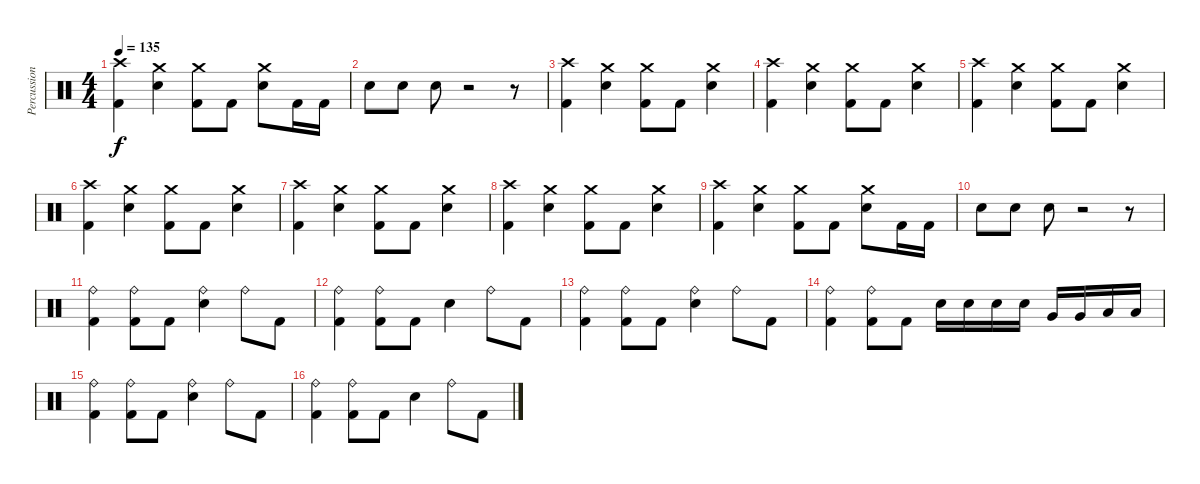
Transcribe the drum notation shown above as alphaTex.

\track ("Percussion" "Percussion") {instrument percussion}
\staff {score}
\articulation defaults
\ts (4 4)
\tempo 135
\clef neutral
\ks c
("Kick (hit) 2" "Crash high (hit)").4{dy f} ("Snare (hit) 2" "Crash medium (hit)").4 ("Kick (hit) 2" "Crash medium (hit)").8 "Kick (hit) 2".8 ("Snare (hit) 2" "Crash medium (hit)").8 "Kick (hit) 2".16 "Kick (hit) 2".16 |
"Snare (hit) 2".8 "Snare (hit) 2".8 "Snare (hit) 2".8 r.2 r.8 |
("Kick (hit) 2" "Crash high (hit)").4 ("Snare (hit) 2" "Crash medium (hit)").4 ("Kick (hit) 2" "Crash medium (hit)").8 "Kick (hit) 2".8 ("Snare (hit) 2" "Crash medium (hit)").4 |
("Kick (hit) 2" "Crash high (hit)").4 ("Snare (hit) 2" "Crash medium (hit)").4 ("Kick (hit) 2" "Crash medium (hit)").8 "Kick (hit) 2".8 ("Snare (hit) 2" "Crash medium (hit)").4 |
("Kick (hit) 2" "Crash high (hit)").4 ("Snare (hit) 2" "Crash medium (hit)").4 ("Kick (hit) 2" "Crash medium (hit)").8 "Kick (hit) 2".8 ("Snare (hit) 2" "Crash medium (hit)").4 |
("Kick (hit) 2" "Crash high (hit)").4 ("Snare (hit) 2" "Crash medium (hit)").4 ("Kick (hit) 2" "Crash medium (hit)").8 "Kick (hit) 2".8 ("Snare (hit) 2" "Crash medium (hit)").4 |
("Kick (hit) 2" "Crash high (hit)").4 ("Snare (hit) 2" "Crash medium (hit)").4 ("Kick (hit) 2" "Crash medium (hit)").8 "Kick (hit) 2".8 ("Snare (hit) 2" "Crash medium (hit)").4 |
("Kick (hit) 2" "Crash high (hit)").4 ("Snare (hit) 2" "Crash medium (hit)").4 ("Kick (hit) 2" "Crash medium (hit)").8 "Kick (hit) 2".8 ("Snare (hit) 2" "Crash medium (hit)").4 |
("Kick (hit) 2" "Crash high (hit)").4 ("Snare (hit) 2" "Crash medium (hit)").4 ("Kick (hit) 2" "Crash medium (hit)").8 "Kick (hit) 2".8 ("Snare (hit) 2" "Crash medium (hit)").8 "Kick (hit) 2".16 "Kick (hit) 2".16 |
"Snare (hit) 2".8 "Snare (hit) 2".8 "Snare (hit) 2".8 r.2 r.8 |
("Kick (hit) 2" "Ride (bell)").4 ("Kick (hit) 2" "Ride (bell)").8 "Kick (hit) 2".8 ("Snare (hit) 2" "Ride (bell)").4 "Ride (bell)".8 "Kick (hit) 2".8 |
("Kick (hit) 2" "Ride (bell)").4 ("Kick (hit) 2" "Ride (bell)").8 "Kick (hit) 2".8 "Snare (hit) 2".4 "Ride (bell)".8 "Kick (hit) 2".8 |
("Kick (hit) 2" "Ride (bell)").4 ("Kick (hit) 2" "Ride (bell)").8 "Kick (hit) 2".8 ("Snare (hit) 2" "Ride (bell)").4 "Ride (bell)".8 "Kick (hit) 2".8 |
("Kick (hit) 2" "Ride (bell)").4 ("Kick (hit) 2" "Ride (bell)").8 "Kick (hit) 2".8 "Snare (hit) 2".16 "Snare (hit) 2".16 "Snare (hit) 2".16 "Snare (hit) 2".16 "Very Low Tom (hit)".16 "Very Low Tom (hit)".16 "Low Floor Tom (hit)".16 "Low Floor Tom (hit)".16 |
("Kick (hit) 2" "Ride (bell)").4 ("Kick (hit) 2" "Ride (bell)").8 "Kick (hit) 2".8 ("Snare (hit) 2" "Ride (bell)").4 "Ride (bell)".8 "Kick (hit) 2".8 |
("Kick (hit) 2" "Ride (bell)").4 ("Kick (hit) 2" "Ride (bell)").8 "Kick (hit) 2".8 "Snare (hit) 2".4 "Ride (bell)".8 "Kick (hit) 2".8
